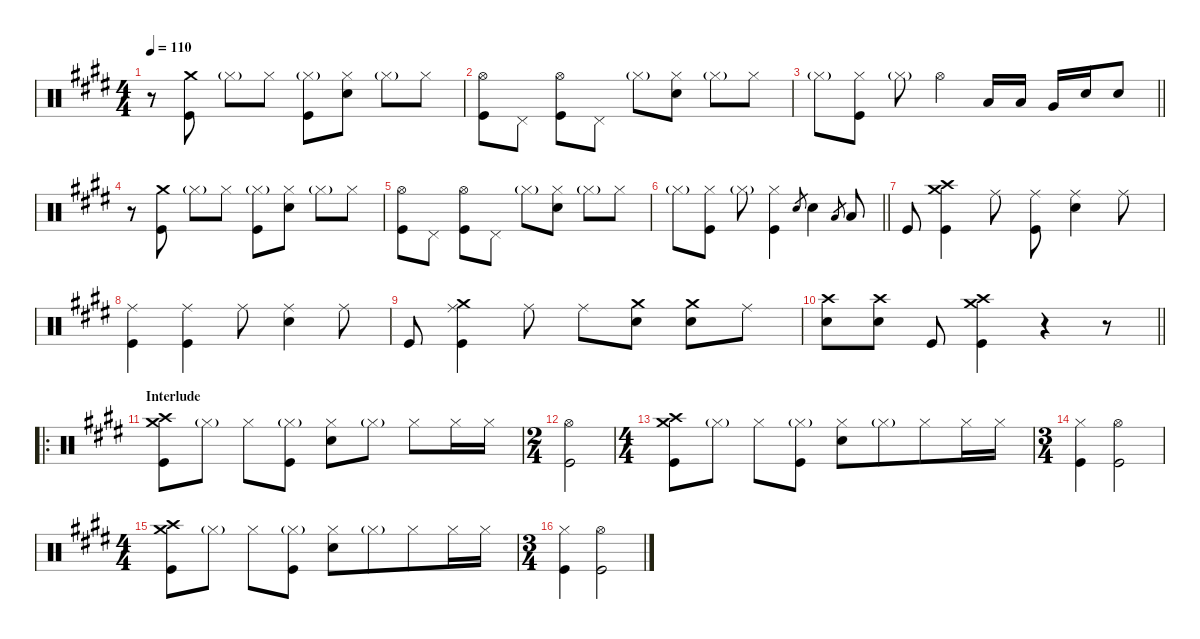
\defaultSystemsLayout 4
\hideDynamics
\bracketExtendMode nobrackets
\singleTrackTrackNamePolicy hidden
\multiTrackTrackNamePolicy hidden
\firstSystemTrackNameMode fullname
\firstSystemTrackNameOrientation horizontal
\otherSystemsTrackNameOrientation horizontal
\track ("Aaron Harris" "drm.") {instrument percussion}
\staff {score}
\articulation defaults
\ts (4 4)
\tempo 110
\clef neutral
\ks c#minor
r.8{dy f beam Down} ("Crash medium (hit)"{acc forcenatural} "Kick (hit)"{acc forcenatural}).8{beam Down} "Hi-Hat (closed)"{g acc forcenatural}.8{dy mf beam Down} "Hi-Hat (closed)"{acc forcenatural}.8{dy f beam Down} ("Hi-Hat (closed)"{g acc forcenatural} "Kick (hit)"{acc forcenatural}).8{beam Down} ("Hi-Hat (closed)"{acc forcenatural} "Snare (hit) 2"{acc forcenatural}).8{beam Down} "Hi-Hat (closed)"{g acc forcenatural}.8{dy mf beam Down} "Hi-Hat (closed)"{acc forcenatural}.8{dy f beam Down} |
("Hi-Hat (open)"{acc forcenatural} "Kick (hit)"{acc forcenatural}).8{beam Down} "Pedal Hi-Hat (hit)"{acc forcenatural}.8{beam Down} ("Hi-Hat (open)"{acc forcenatural} "Kick (hit)"{acc forcenatural}).8{beam Down} "Pedal Hi-Hat (hit)"{acc forcenatural}.8{beam Down} "Hi-Hat (closed)"{g acc forcenatural}.8{dy mf beam Down} ("Hi-Hat (closed)"{acc forcenatural} "Snare (hit) 2"{acc forcenatural}).8{dy f beam Down} "Hi-Hat (closed)"{g acc forcenatural}.8{dy mf beam Down} "Hi-Hat (closed)"{acc forcenatural}.8{dy f beam Down} |
\barLineRight lightlight "Hi-Hat (closed)"{g acc forcenatural}.8{dy mf beam Down}
("Hi-Hat (closed)"{acc forcenatural} "Kick (hit)"{acc forcenatural}).8{dy f beam Down} "Hi-Hat (closed)"{g acc forcenatural}.8{dy mf beam Down} "Hi-Hat (open)"{acc forcenatural}.4{dy f beam Down} "Low Tom (hit)"{acc forcenatural}.16{beam Up} "Low Tom (hit)"{acc forcenatural}.16{beam Up} "Very Low Tom (hit)"{acc forcenatural}.16{beam Up} "Snare (hit) 2"{acc forcenatural}.16{beam Up} "Snare (hit) 2"{acc forcenatural}.8{beam Up} |
r.8{beam Down} ("Crash medium (hit)"{acc forcenatural} "Kick (hit)"{acc forcenatural}).8{beam Down} "Hi-Hat (closed)"{g acc forcenatural}.8{dy mf beam Down} "Hi-Hat (closed)"{acc forcenatural}.8{dy f beam Down} ("Hi-Hat (closed)"{g acc forcenatural} "Kick (hit)"{acc forcenatural}).8{beam Down} ("Hi-Hat (closed)"{acc forcenatural} "Snare (hit) 2"{acc forcenatural}).8{beam Down} "Hi-Hat (closed)"{g acc forcenatural}.8{dy mf beam Down} "Hi-Hat (closed)"{acc forcenatural}.8{dy f beam Down} |
("Hi-Hat (open)"{acc forcenatural} "Kick (hit)"{acc forcenatural}).8{beam Down} "Pedal Hi-Hat (hit)"{acc forcenatural}.8{beam Down} ("Hi-Hat (open)"{acc forcenatural} "Kick (hit)"{acc forcenatural}).8{beam Down} "Pedal Hi-Hat (hit)"{acc forcenatural}.8{beam Down} "Hi-Hat (closed)"{g acc forcenatural}.8{dy mf beam Down} ("Hi-Hat (closed)"{acc forcenatural} "Snare (hit) 2"{acc forcenatural}).8{dy f beam Down} "Hi-Hat (closed)"{g acc forcenatural}.8{dy mf beam Down} "Hi-Hat (closed)"{acc forcenatural}.8{dy f beam Down} |
\barLineRight lightlight "Hi-Hat (closed)"{g acc forcenatural}.8{dy mf beam Down}
("Hi-Hat (closed)"{acc forcenatural} "Kick (hit)"{acc forcenatural}).8{dy f beam Down} "Hi-Hat (closed)"{g acc forcenatural}.8{dy mf beam Down} ("Hi-Hat (closed)"{acc forcenatural} "Kick (hit)"{acc forcenatural}).4{dy f beam Down} "Electric Snare (hit)"{acc forcenatural}.8{gr beam Up} "Snare (hit) 2"{acc forcenatural}.4{beam Down} "Low Tom (hit)"{acc forcenatural}.8{gr dy mf beam Up} "Low Tom (hit)"{acc forcenatural}.8{dy f beam Up} |
"Kick (hit)"{acc forcenatural}.8{beam Up} ("Crash medium (hit)"{acc forcenatural} "Crash high (hit)"{acc forcenatural} "Kick (hit)"{acc forcenatural}).4{beam Down} "Ride (middle)"{acc forcenatural}.8{beam Down} ("Ride (middle)"{acc forcenatural} "Kick (hit)"{acc forcenatural}).8{beam Down} ("Ride (middle)"{acc forcenatural} "Snare (hit) 2"{acc forcenatural}).4{beam Down} "Ride (middle)"{acc forcenatural}.8{beam Down} |
("Ride (middle)"{acc forcenatural} "Kick (hit)"{acc forcenatural}).4{beam Down} ("Ride (middle)"{acc forcenatural} "Kick (hit)"{acc forcenatural}).4{beam Down} "Ride (middle)"{acc forcenatural}.8{dy mp beam Down} ("Ride (middle)"{acc forcenatural} "Snare (hit) 2"{acc forcenatural}).4{dy f beam Down} "Ride (middle)"{acc forcenatural}.8{beam Down} |
"Kick (hit)"{acc forcenatural}.8{beam Up} ("Crash medium (hit)"{acc forcenatural} "Ride (middle)"{acc forcenatural} "Kick (hit)"{acc forcenatural}).4{beam Down} "Ride (middle)"{acc forcenatural}.8{beam Down} "Ride (middle)"{acc forcenatural}.8{beam Down} ("Crash medium (hit)"{acc forcenatural} "Snare (hit) 2"{acc forcenatural}).8{beam Down} ("Crash medium (hit)"{acc forcenatural} "Snare (hit) 2"{acc forcenatural}).8{beam Down} "Ride (middle)"{acc forcenatural}.8{beam Down} |
\barLineRight lightlight
("Crash high (hit)"{acc forcenatural} "Snare (hit) 2"{acc forcenatural}).8{beam Down} ("Crash high (hit)"{acc forcenatural} "Snare (hit) 2"{acc forcenatural}).8{beam Down} "Kick (hit)"{acc forcenatural}.8{beam Up} ("Crash medium (hit)"{acc forcenatural} "Crash high (hit)"{acc forcenatural} "Kick (hit)"{acc forcenatural}).4{beam Down} r.4{beam Down} r.8{beam Down} |
\ro
\section ("" "Interlude")
("Crash medium (hit)"{acc forcenatural} "Crash high (hit)"{acc forcenatural} "Kick (hit)"{acc forcenatural}).8{beam Down} "Hi-Hat (closed)"{g acc forcenatural}.8{dy mf beam Down} "Hi-Hat (closed)"{acc forcenatural}.8{dy f beam Down} ("Hi-Hat (closed)"{g acc forcenatural} "Kick (hit)"{acc forcenatural}).8{beam Down} ("Hi-Hat (closed)"{acc forcenatural} "Snare (hit) 2"{acc forcenatural}).8{beam Down} "Hi-Hat (closed)"{g acc forcenatural}.8{dy mf beam Down} "Hi-Hat (closed)"{acc forcenatural}.8{dy f beam Down} "Hi-Hat (closed)"{acc forcenatural}.16{beam Down} "Hi-Hat (closed)"{acc forcenatural}.16{beam Down} |
\ts (2 4)
\beaming (8 2 2)
("Hi-Hat (open)"{acc forcenatural} "Kick (hit)"{acc forcenatural}).2{beam Down} |
\ts (4 4)
\beaming (8 2 2 4)
("Crash medium (hit)"{acc forcenatural} "Crash high (hit)"{acc forcenatural} "Kick (hit)"{acc forcenatural}).8{beam Down} "Hi-Hat (closed)"{g acc forcenatural}.8{dy mf beam Down} "Hi-Hat (closed)"{acc forcenatural}.8{dy f beam Down} ("Hi-Hat (closed)"{g acc forcenatural} "Kick (hit)"{acc forcenatural}).8{beam Down} ("Hi-Hat (closed)"{acc forcenatural} "Snare (hit) 2"{acc forcenatural}).8{beam Down} "Hi-Hat (closed)"{g acc forcenatural}.8{dy mf beam Down} "Hi-Hat (closed)"{acc forcenatural}.8{dy f beam Down} "Hi-Hat (closed)"{acc forcenatural}.16{beam Down} "Hi-Hat (closed)"{acc forcenatural}.16{beam Down} |
\ts (3 4)
\beaming (8 2 2 2)
("Hi-Hat (closed)"{acc forcenatural} "Kick (hit)"{acc forcenatural}).4{beam Down} ("Hi-Hat (open)"{acc forcenatural} "Kick (hit)"{acc forcenatural}).2{beam Down} |
\ts (4 4)
\beaming (8 2 2 4)
("Crash medium (hit)"{acc forcenatural} "Crash high (hit)"{acc forcenatural} "Kick (hit)"{acc forcenatural}).8{beam Down} "Hi-Hat (closed)"{g acc forcenatural}.8{dy mf beam Down} "Hi-Hat (closed)"{acc forcenatural}.8{dy f beam Down} ("Hi-Hat (closed)"{g acc forcenatural} "Kick (hit)"{acc forcenatural}).8{beam Down} ("Hi-Hat (closed)"{acc forcenatural} "Snare (hit) 2"{acc forcenatural}).8{beam Down} "Hi-Hat (closed)"{g acc forcenatural}.8{dy mf beam Down} "Hi-Hat (closed)"{acc forcenatural}.8{dy f beam Down} "Hi-Hat (closed)"{acc forcenatural}.16{beam Down} "Hi-Hat (closed)"{acc forcenatural}.16{beam Down} |
\ts (3 4)
\beaming (8 2 2 2)
("Hi-Hat (closed)"{acc forcenatural} "Kick (hit)"{acc forcenatural}).4{beam Down} ("Hi-Hat (open)"{acc forcenatural} "Kick (hit)"{acc forcenatural}).2{beam Down}
